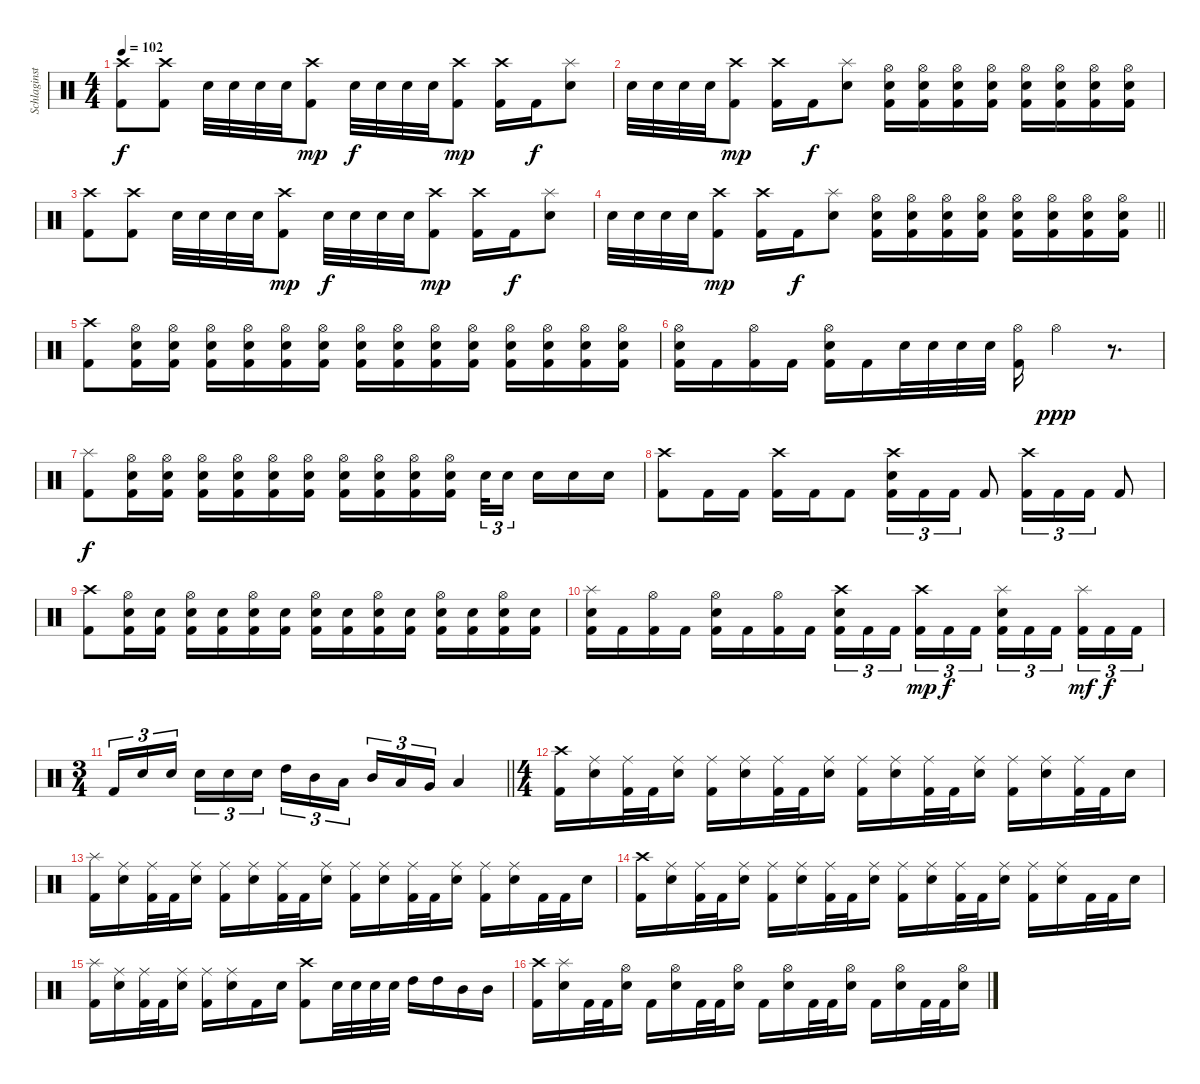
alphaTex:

\track ("Schlaginstrumente - Auswahl" "Schlaginst") {instrument percussion}
\staff {score}
\articulation defaults
\ts (4 4)
\tempo 102
\clef neutral
\ks c
("Crash high (hit)" "Kick (hit) 2").8{dy f} ("Crash high (hit)" "Kick (hit) 2").8 "Snare (hit) 2".32 "Snare (hit) 2".32 "Snare (hit) 2".32 "Snare (hit) 2".32 ("Crash high (hit)" "Kick (hit) 2").8{dy mp} "Snare (hit) 2".32{dy f} "Snare (hit) 2".32 "Snare (hit) 2".32 "Snare (hit) 2".32 ("Crash high (hit)" "Kick (hit) 2").8{dy mp} ("Crash high (hit)" "Kick (hit) 2").16 "Kick (hit) 2".16{dy f} ("Splash (hit)" "Snare (hit) 2").8 |
"Snare (hit) 2".32 "Snare (hit) 2".32 "Snare (hit) 2".32 "Snare (hit) 2".32 ("Crash high (hit)" "Kick (hit) 2").8{dy mp} ("Crash high (hit)" "Kick (hit) 2").16 "Kick (hit) 2".16{dy f} ("Splash (hit)" "Snare (hit) 2").8 ("Hi-Hat (open)" "Snare (hit) 2" "Kick (hit) 2").16 ("Hi-Hat (open)" "Snare (hit) 2" "Kick (hit) 2").16 ("Hi-Hat (open)" "Snare (hit) 2" "Kick (hit) 2").16 ("Hi-Hat (open)" "Snare (hit) 2" "Kick (hit) 2").16 ("Hi-Hat (open)" "Snare (hit) 2" "Kick (hit) 2").16 ("Hi-Hat (open)" "Snare (hit) 2" "Kick (hit) 2").16 ("Hi-Hat (open)" "Snare (hit) 2" "Kick (hit) 2").16 ("Hi-Hat (open)" "Snare (hit) 2" "Kick (hit) 2").16 |
("Crash high (hit)" "Kick (hit) 2").8 ("Crash high (hit)" "Kick (hit) 2").8 "Snare (hit) 2".32 "Snare (hit) 2".32 "Snare (hit) 2".32 "Snare (hit) 2".32 ("Crash high (hit)" "Kick (hit) 2").8{dy mp} "Snare (hit) 2".32{dy f} "Snare (hit) 2".32 "Snare (hit) 2".32 "Snare (hit) 2".32 ("Crash high (hit)" "Kick (hit) 2").8{dy mp} ("Crash high (hit)" "Kick (hit) 2").16 "Kick (hit) 2".16{dy f} ("Splash (hit)" "Snare (hit) 2").8 |
\barLineRight lightlight "Snare (hit) 2".32 "Snare (hit) 2".32 "Snare (hit) 2".32 "Snare (hit) 2".32
("Crash high (hit)" "Kick (hit) 2").8{dy mp} ("Crash high (hit)" "Kick (hit) 2").16 "Kick (hit) 2".16{dy f} ("Splash (hit)" "Snare (hit) 2").8 ("Hi-Hat (open)" "Snare (hit) 2" "Kick (hit) 2").16 ("Hi-Hat (open)" "Snare (hit) 2" "Kick (hit) 2").16 ("Hi-Hat (open)" "Snare (hit) 2" "Kick (hit) 2").16 ("Hi-Hat (open)" "Snare (hit) 2" "Kick (hit) 2").16 ("Hi-Hat (open)" "Snare (hit) 2" "Kick (hit) 2").16 ("Hi-Hat (open)" "Snare (hit) 2" "Kick (hit) 2").16 ("Hi-Hat (open)" "Snare (hit) 2" "Kick (hit) 2").16 ("Hi-Hat (open)" "Snare (hit) 2" "Kick (hit) 2").16 |
("Crash high (hit)" "Kick (hit) 2").8 ("Hi-Hat (open)" "Snare (hit) 2" "Kick (hit) 2").16 ("Hi-Hat (open)" "Snare (hit) 2" "Kick (hit) 2").16 ("Hi-Hat (open)" "Snare (hit) 2" "Kick (hit) 2").16 ("Hi-Hat (open)" "Snare (hit) 2" "Kick (hit) 2").16 ("Hi-Hat (open)" "Snare (hit) 2" "Kick (hit) 2").16 ("Hi-Hat (open)" "Snare (hit) 2" "Kick (hit) 2").16 ("Hi-Hat (open)" "Snare (hit) 2" "Kick (hit) 2").16 ("Hi-Hat (open)" "Snare (hit) 2" "Kick (hit) 2").16 ("Hi-Hat (open)" "Snare (hit) 2" "Kick (hit) 2").16 ("Hi-Hat (open)" "Snare (hit) 2" "Kick (hit) 2").16 ("Hi-Hat (open)" "Snare (hit) 2" "Kick (hit) 2").16 ("Hi-Hat (open)" "Snare (hit) 2" "Kick (hit) 2").16 ("Hi-Hat (open)" "Snare (hit) 2" "Kick (hit) 2").16 ("Hi-Hat (open)" "Snare (hit) 2" "Kick (hit) 2").16 |
("Hi-Hat (open)" "Snare (hit) 2" "Kick (hit) 2").16 "Kick (hit) 2".16 ("Hi-Hat (open)" "Kick (hit) 2").16 "Kick (hit) 2".16 ("Hi-Hat (open)" "Snare (hit) 2" "Kick (hit) 2").16 "Kick (hit) 2".16 "Snare (hit) 2".32 "Snare (hit) 2".32 "Snare (hit) 2".32 "Snare (hit) 2".32 ("Hi-Hat (open)" "Kick (hit) 2").16 "Hi-Hat (open)".4{dy ppp} r.8{d} |
("Splash (hit)" "Kick (hit) 2").8{dy f} ("Hi-Hat (open)" "Snare (hit) 2" "Kick (hit) 2").16 ("Hi-Hat (open)" "Snare (hit) 2" "Kick (hit) 2").16 ("Hi-Hat (open)" "Snare (hit) 2" "Kick (hit) 2").16 ("Hi-Hat (open)" "Snare (hit) 2" "Kick (hit) 2").16 ("Hi-Hat (open)" "Snare (hit) 2" "Kick (hit) 2").16 ("Hi-Hat (open)" "Snare (hit) 2" "Kick (hit) 2").16 ("Hi-Hat (open)" "Snare (hit) 2" "Kick (hit) 2").16 ("Hi-Hat (open)" "Snare (hit) 2" "Kick (hit) 2").16 ("Hi-Hat (open)" "Snare (hit) 2" "Kick (hit) 2").16 ("Hi-Hat (open)" "Snare (hit) 2" "Kick (hit) 2").16 "Snare (hit) 2".32{tu (3 2)} "Snare (hit) 2".16{tu (3 2) beam splitsecondary} "Snare (hit) 2".16 "Snare (hit) 2".16 "Snare (hit) 2".16 |
("Crash high (hit)" "Kick (hit) 2").8 "Kick (hit) 2".16 "Kick (hit) 2".16 ("Crash high (hit)" "Kick (hit) 2").16 "Kick (hit) 2".16 "Kick (hit) 2".8 ("Crash high (hit)" "Snare (hit) 2" "Kick (hit) 2").16{tu (3 2)} "Kick (hit) 2".16{tu (3 2)} "Kick (hit) 2".16{tu (3 2)} "Kick (hit) 2".8 ("Crash high (hit)" "Kick (hit) 2").16{tu (3 2)} "Kick (hit) 2".16{tu (3 2)} "Kick (hit) 2".16{tu (3 2)} "Kick (hit) 2".8 |
("Crash high (hit)" "Kick (hit) 2").8 ("Hi-Hat (open)" "Snare (hit) 2" "Kick (hit) 2").16 ("Snare (hit) 2" "Kick (hit) 2").16 ("Hi-Hat (open)" "Snare (hit) 2" "Kick (hit) 2").16 ("Snare (hit) 2" "Kick (hit) 2").16 ("Hi-Hat (open)" "Snare (hit) 2" "Kick (hit) 2").16 ("Snare (hit) 2" "Kick (hit) 2").16 ("Hi-Hat (open)" "Snare (hit) 2" "Kick (hit) 2").16 ("Snare (hit) 2" "Kick (hit) 2").16 ("Hi-Hat (open)" "Snare (hit) 2" "Kick (hit) 2").16 ("Snare (hit) 2" "Kick (hit) 2").16 ("Hi-Hat (open)" "Snare (hit) 2" "Kick (hit) 2").16 ("Snare (hit) 2" "Kick (hit) 2").16 ("Hi-Hat (open)" "Snare (hit) 2" "Kick (hit) 2").16 ("Snare (hit) 2" "Kick (hit) 2").16 |
("Splash (hit)" "Snare (hit) 2" "Kick (hit) 2").16 "Kick (hit) 2".16 ("Hi-Hat (open)" "Kick (hit) 2").16 "Kick (hit) 2".16 ("Hi-Hat (open)" "Snare (hit) 2" "Kick (hit) 2").16 "Kick (hit) 2".16 ("Hi-Hat (open)" "Kick (hit) 2").16 "Kick (hit) 2".16 ("Crash high (hit)" "Snare (hit) 2" "Kick (hit) 2").16{tu (3 2)} "Kick (hit) 2".16{tu (3 2)} "Kick (hit) 2".16{tu (3 2) beam splitsecondary} ("Crash high (hit)" "Kick (hit) 2").16{tu (3 2) dy mp} "Kick (hit) 2".16{tu (3 2) dy f} "Kick (hit) 2".16{tu (3 2)} ("Splash (hit)" "Snare (hit) 2" "Kick (hit) 2").16{tu (3 2)} "Kick (hit) 2".16{tu (3 2)} "Kick (hit) 2".16{tu (3 2) beam splitsecondary} ("Splash (hit)" "Kick (hit) 2").16{tu (3 2) dy mf} "Kick (hit) 2".16{tu (3 2) dy f} "Kick (hit) 2".16{tu (3 2)} |
\ts (3 4)
\barLineRight lightlight "Kick (hit) 2".16{tu (3 2)} "Snare (hit) 2".16{tu (3 2)} "Snare (hit) 2".16{tu (3 2) beam splitsecondary} "Snare (hit) 2".16{tu (3 2)} "Snare (hit) 2".16{tu (3 2)} "Snare (hit) 2".16{tu (3 2)} "High Tom (hit)".16{tu (3 2)} "Mid Tom (hit)".16{tu (3 2)} "Low Tom (hit)".16{tu (3 2) beam splitsecondary} "Mid Tom (hit)".16{tu (3 2)} "Low Tom (hit)".16{tu (3 2)} "Very Low Tom (hit)".16{tu (3 2)} "Low Floor Tom (hit)".4
|
\ts (4 4)
("Crash high (hit)" "Kick (hit) 2").16 ("Ride (middle)" "Snare (hit) 2").16 ("Ride (middle)" "Kick (hit) 2").32 "Kick (hit) 2".32 ("Ride (middle)" "Snare (hit) 2").16 ("Ride (middle)" "Kick (hit) 2").16 ("Ride (middle)" "Snare (hit) 2").16 ("Ride (middle)" "Kick (hit) 2").32 "Kick (hit) 2".32 ("Ride (middle)" "Snare (hit) 2").16 ("Ride (middle)" "Kick (hit) 2").16 ("Ride (middle)" "Snare (hit) 2").16 ("Ride (middle)" "Kick (hit) 2").32 "Kick (hit) 2".32 ("Ride (middle)" "Snare (hit) 2").16 ("Ride (middle)" "Kick (hit) 2").16 ("Ride (middle)" "Snare (hit) 2").16 ("Ride (middle)" "Kick (hit) 2").32 "Kick (hit) 2".32 "Snare (hit) 2".16 |
("Splash (hit)" "Kick (hit) 2").16 ("Ride (middle)" "Snare (hit) 2").16 ("Ride (middle)" "Kick (hit) 2").32 "Kick (hit) 2".32 ("Ride (middle)" "Snare (hit) 2").16 ("Ride (middle)" "Kick (hit) 2").16 ("Ride (middle)" "Snare (hit) 2").16 ("Ride (middle)" "Kick (hit) 2").32 "Kick (hit) 2".32 ("Ride (middle)" "Snare (hit) 2").16 ("Ride (middle)" "Kick (hit) 2").16 ("Ride (middle)" "Snare (hit) 2").16 ("Ride (middle)" "Kick (hit) 2").32 "Kick (hit) 2".32 ("Ride (middle)" "Snare (hit) 2").16 ("Ride (middle)" "Kick (hit) 2").16 ("Ride (middle)" "Snare (hit) 2").16 "Kick (hit) 2".32 "Kick (hit) 2".32 "Snare (hit) 2".16 |
("Crash high (hit)" "Kick (hit) 2").16 ("Ride (middle)" "Snare (hit) 2").16 ("Ride (middle)" "Kick (hit) 2").32 "Kick (hit) 2".32 ("Ride (middle)" "Snare (hit) 2").16 ("Ride (middle)" "Kick (hit) 2").16 ("Ride (middle)" "Snare (hit) 2").16 ("Ride (middle)" "Kick (hit) 2").32 "Kick (hit) 2".32 ("Ride (middle)" "Snare (hit) 2").16 ("Ride (middle)" "Kick (hit) 2").16 ("Ride (middle)" "Snare (hit) 2").16 ("Ride (middle)" "Kick (hit) 2").32 "Kick (hit) 2".32 ("Ride (middle)" "Snare (hit) 2").16 ("Ride (middle)" "Kick (hit) 2").16 ("Ride (middle)" "Snare (hit) 2").16 "Kick (hit) 2".32 "Kick (hit) 2".32 "Snare (hit) 2".16 |
("Splash (hit)" "Kick (hit) 2").16 ("Ride (middle)" "Snare (hit) 2").16 ("Ride (middle)" "Kick (hit) 2").32 "Kick (hit) 2".32 ("Ride (middle)" "Snare (hit) 2").16 ("Ride (middle)" "Kick (hit) 2").16 ("Ride (middle)" "Snare (hit) 2").16 "Kick (hit) 2".16 "Snare (hit) 2".16 ("Crash high (hit)" "Kick (hit) 2").8 "Snare (hit) 2".32 "Snare (hit) 2".32 "Snare (hit) 2".32 "Snare (hit) 2".32 "High Tom (hit)".16 "High Tom (hit)".16 "Mid Tom (hit)".16 "Mid Tom (hit)".16 |
("Crash high (hit)" "Kick (hit) 2").16 ("Splash (hit)" "Snare (hit) 2").16 "Kick (hit) 2".32 "Kick (hit) 2".32 ("Hi-Hat (open)" "Snare (hit) 2").16 "Kick (hit) 2".16 ("Hi-Hat (open)" "Snare (hit) 2").16 "Kick (hit) 2".32 "Kick (hit) 2".32 ("Hi-Hat (open)" "Snare (hit) 2").16 "Kick (hit) 2".16 ("Hi-Hat (open)" "Snare (hit) 2").16 "Kick (hit) 2".32 "Kick (hit) 2".32 ("Hi-Hat (open)" "Snare (hit) 2").16 "Kick (hit) 2".16 ("Hi-Hat (open)" "Snare (hit) 2").16 "Kick (hit) 2".32 "Kick (hit) 2".32 ("Hi-Hat (open)" "Snare (hit) 2").16
